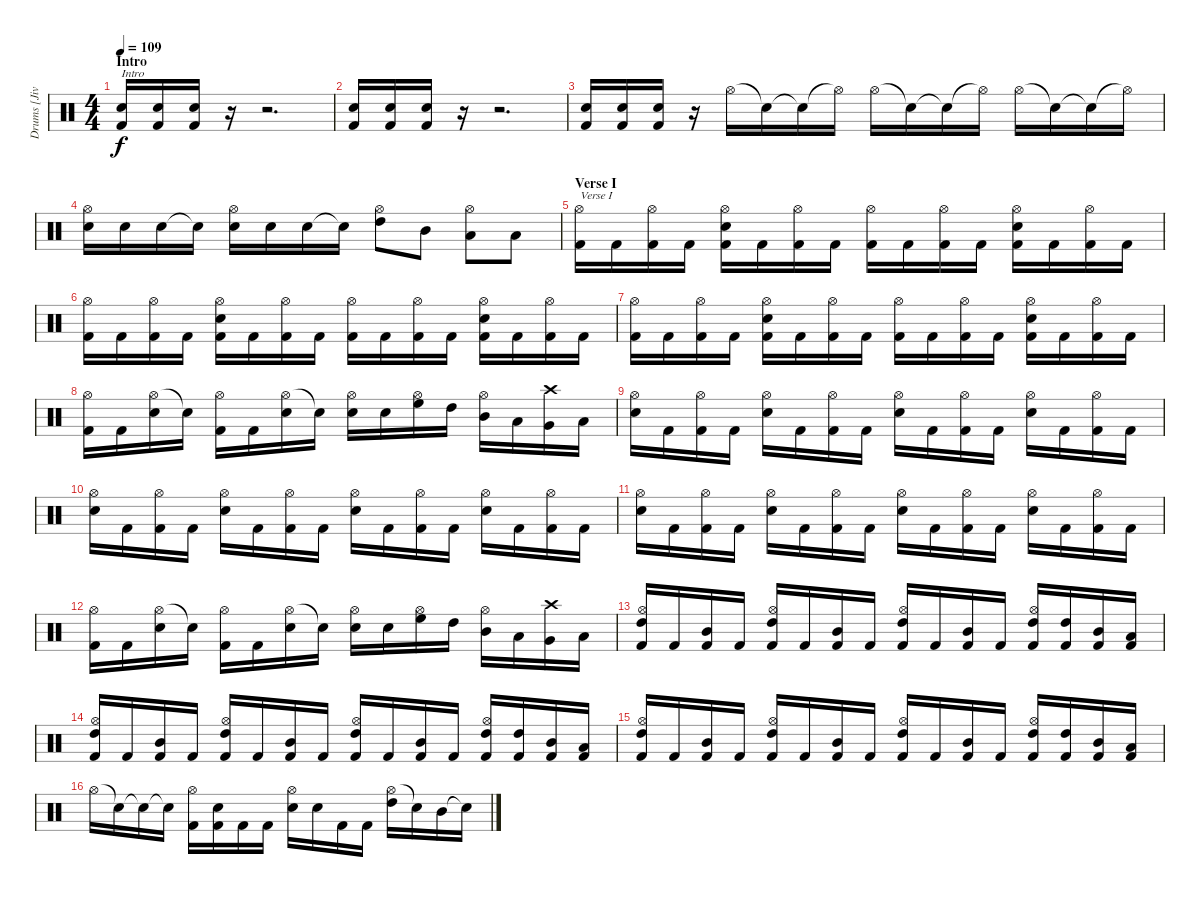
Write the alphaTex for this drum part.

\track ("Drums [Jivarp]" "Drums [Jiv") {instrument percussion}
\staff {score}
\articulation defaults
\ts (4 4)
\section ("" "Intro")
\tempo 109
\clef neutral
\ks c
("Electric Snare (hit)" "Kick (hit) 2").16{txt "Intro" dy f} ("Electric Snare (hit)" "Kick (hit) 2").16 ("Electric Snare (hit)" "Kick (hit) 2").16 r.16 r.2{d} |
("Electric Snare (hit)" "Kick (hit) 2").16 ("Electric Snare (hit)" "Kick (hit) 2").16 ("Electric Snare (hit)" "Kick (hit) 2").16 r.16 r.2{d} |
("Electric Snare (hit)" "Kick (hit) 2").16 ("Electric Snare (hit)" "Kick (hit) 2").16 ("Electric Snare (hit)" "Kick (hit) 2").16 r.16 "Hi-Hat (open)".16 "Snare (hit)"{t}.16 "Snare (hit)"{t}.16 "Hi-Hat (open)"{t}.16 "Hi-Hat (open)".16 "Snare (hit)"{t}.16 "Snare (hit)"{t}.16 "Hi-Hat (open)"{t}.16 "Hi-Hat (open)".16 "Snare (hit)"{t}.16 "Snare (hit)"{t}.16 "Hi-Hat (open)"{t}.16 |
("Hi-Hat (open)" "Electric Snare (hit)").16 "Electric Snare (hit)".16 "Electric Snare (hit)".16 "Electric Snare (hit)"{t}.16 ("Hi-Hat (open)" "Electric Snare (hit)").16 "Electric Snare (hit)".16 "Electric Snare (hit)".16 "Electric Snare (hit)"{t}.16 ("Hi-Hat (open)" "High Tom (hit)").8 "Mid Tom (hit)".8 ("Hi-Hat (open)" "Low Tom (hit)").8 "Low Tom (hit)".8 |
\section ("" "Verse I")
("Hi-Hat (open)" "Kick (hit) 2").16{txt "Verse I"} "Kick (hit) 2".16 ("Hi-Hat (open)" "Kick (hit) 2").16 "Kick (hit) 2".16 ("Hi-Hat (open)" "Electric Snare (hit)" "Kick (hit) 2").16 "Kick (hit) 2".16 ("Hi-Hat (open)" "Kick (hit) 2").16 "Kick (hit) 2".16 ("Hi-Hat (open)" "Kick (hit) 2").16 "Kick (hit) 2".16 ("Hi-Hat (open)" "Kick (hit) 2").16 "Kick (hit) 2".16 ("Hi-Hat (open)" "Electric Snare (hit)" "Kick (hit) 2").16 "Kick (hit) 2".16 ("Hi-Hat (open)" "Kick (hit) 2").16 "Kick (hit) 2".16 |
("Hi-Hat (open)" "Kick (hit) 2").16 "Kick (hit) 2".16 ("Hi-Hat (open)" "Kick (hit) 2").16 "Kick (hit) 2".16 ("Hi-Hat (open)" "Electric Snare (hit)" "Kick (hit) 2").16 "Kick (hit) 2".16 ("Hi-Hat (open)" "Kick (hit) 2").16 "Kick (hit) 2".16 ("Hi-Hat (open)" "Kick (hit) 2").16 "Kick (hit) 2".16 ("Hi-Hat (open)" "Kick (hit) 2").16 "Kick (hit) 2".16 ("Hi-Hat (open)" "Electric Snare (hit)" "Kick (hit) 2").16 "Kick (hit) 2".16 ("Hi-Hat (open)" "Kick (hit) 2").16 "Kick (hit) 2".16 |
("Hi-Hat (open)" "Kick (hit) 2").16 "Kick (hit) 2".16 ("Hi-Hat (open)" "Kick (hit) 2").16 "Kick (hit) 2".16 ("Hi-Hat (open)" "Electric Snare (hit)" "Kick (hit) 2").16 "Kick (hit) 2".16 ("Hi-Hat (open)" "Kick (hit) 2").16 "Kick (hit) 2".16 ("Hi-Hat (open)" "Kick (hit) 2").16 "Kick (hit) 2".16 ("Hi-Hat (open)" "Kick (hit) 2").16 "Kick (hit) 2".16 ("Hi-Hat (open)" "Electric Snare (hit)" "Kick (hit) 2").16 "Kick (hit) 2".16 ("Hi-Hat (open)" "Kick (hit) 2").16 "Kick (hit) 2".16 |
("Hi-Hat (open)" "Kick (hit) 2").16 "Kick (hit) 2".16 ("Hi-Hat (open)" "Electric Snare (hit)").16 "Electric Snare (hit)"{t}.16 ("Hi-Hat (open)" "Kick (hit) 2").16 "Kick (hit) 2".16 ("Hi-Hat (open)" "Electric Snare (hit)").16 "Electric Snare (hit)"{t}.16 ("Hi-Hat (open)" "Electric Snare (hit)").16 "Electric Snare (hit)".16 ("Hi-Hat (open)" "High Floor Tom (hit)").16 "High Tom (hit)".16 ("Hi-Hat (open)" "Mid Tom (hit)").16 "Low Tom (hit)".16 ("Crash high (hit)" "Very Low Tom (hit)").16 "Low Tom (hit)".16 |
("Hi-Hat (open)" "Electric Snare (hit)").16 "Kick (hit) 2".16 ("Hi-Hat (open)" "Kick (hit) 2").16 "Kick (hit) 2".16 ("Hi-Hat (open)" "Electric Snare (hit)").16 "Kick (hit) 2".16 ("Hi-Hat (open)" "Kick (hit) 2").16 "Kick (hit) 2".16 ("Hi-Hat (open)" "Electric Snare (hit)").16 "Kick (hit) 2".16 ("Hi-Hat (open)" "Kick (hit) 2").16 "Kick (hit) 2".16 ("Hi-Hat (open)" "Electric Snare (hit)").16 "Kick (hit) 2".16 ("Hi-Hat (open)" "Kick (hit) 2").16 "Kick (hit) 2".16 |
("Hi-Hat (open)" "Electric Snare (hit)").16 "Kick (hit) 2".16 ("Hi-Hat (open)" "Kick (hit) 2").16 "Kick (hit) 2".16 ("Hi-Hat (open)" "Electric Snare (hit)").16 "Kick (hit) 2".16 ("Hi-Hat (open)" "Kick (hit) 2").16 "Kick (hit) 2".16 ("Hi-Hat (open)" "Electric Snare (hit)").16 "Kick (hit) 2".16 ("Hi-Hat (open)" "Kick (hit) 2").16 "Kick (hit) 2".16 ("Hi-Hat (open)" "Electric Snare (hit)").16 "Kick (hit) 2".16 ("Hi-Hat (open)" "Kick (hit) 2").16 "Kick (hit) 2".16 |
("Hi-Hat (open)" "Electric Snare (hit)").16 "Kick (hit) 2".16 ("Hi-Hat (open)" "Kick (hit) 2").16 "Kick (hit) 2".16 ("Hi-Hat (open)" "Electric Snare (hit)").16 "Kick (hit) 2".16 ("Hi-Hat (open)" "Kick (hit) 2").16 "Kick (hit) 2".16 ("Hi-Hat (open)" "Electric Snare (hit)").16 "Kick (hit) 2".16 ("Hi-Hat (open)" "Kick (hit) 2").16 "Kick (hit) 2".16 ("Hi-Hat (open)" "Electric Snare (hit)").16 "Kick (hit) 2".16 ("Hi-Hat (open)" "Kick (hit) 2").16 "Kick (hit) 2".16 |
("Hi-Hat (open)" "Kick (hit) 2").16 "Kick (hit) 2".16 ("Hi-Hat (open)" "Electric Snare (hit)").16 "Electric Snare (hit)"{t}.16 ("Hi-Hat (open)" "Kick (hit) 2").16 "Kick (hit) 2".16 ("Hi-Hat (open)" "Electric Snare (hit)").16 "Electric Snare (hit)"{t}.16 ("Hi-Hat (open)" "Electric Snare (hit)").16 "Electric Snare (hit)".16 ("Hi-Hat (open)" "High Floor Tom (hit)").16 "High Tom (hit)".16 ("Hi-Hat (open)" "Mid Tom (hit)").16 "Low Tom (hit)".16 ("Crash high (hit)" "Very Low Tom (hit)").16 "Low Tom (hit)".16 |
("Hi-Hat (open)" "High Tom (hit)" "Kick (hit) 2").16 "Kick (hit) 2".16 ("Mid Tom (hit)" "Kick (hit) 2").16 "Kick (hit) 2".16 ("Hi-Hat (open)" "High Tom (hit)" "Kick (hit) 2").16 "Kick (hit) 2".16 ("Mid Tom (hit)" "Kick (hit) 2").16 "Kick (hit) 2".16 ("Hi-Hat (open)" "High Tom (hit)" "Kick (hit) 2").16 "Kick (hit) 2".16 ("Mid Tom (hit)" "Kick (hit) 2").16 "Kick (hit) 2".16 ("Hi-Hat (open)" "High Tom (hit)" "Kick (hit) 2").16 ("High Tom (hit)" "Kick (hit) 2").16 ("Mid Tom (hit)" "Kick (hit) 2").16 ("Low Tom (hit)" "Kick (hit) 2").16 |
("Hi-Hat (open)" "High Tom (hit)" "Kick (hit) 2").16 "Kick (hit) 2".16 ("Mid Tom (hit)" "Kick (hit) 2").16 "Kick (hit) 2".16 ("Hi-Hat (open)" "High Tom (hit)" "Kick (hit) 2").16 "Kick (hit) 2".16 ("Mid Tom (hit)" "Kick (hit) 2").16 "Kick (hit) 2".16 ("Hi-Hat (open)" "High Tom (hit)" "Kick (hit) 2").16 "Kick (hit) 2".16 ("Mid Tom (hit)" "Kick (hit) 2").16 "Kick (hit) 2".16 ("Hi-Hat (open)" "High Tom (hit)" "Kick (hit) 2").16 ("High Tom (hit)" "Kick (hit) 2").16 ("Mid Tom (hit)" "Kick (hit) 2").16 ("Low Tom (hit)" "Kick (hit) 2").16 |
("Hi-Hat (open)" "High Tom (hit)" "Kick (hit) 2").16 "Kick (hit) 2".16 ("Mid Tom (hit)" "Kick (hit) 2").16 "Kick (hit) 2".16 ("Hi-Hat (open)" "High Tom (hit)" "Kick (hit) 2").16 "Kick (hit) 2".16 ("Mid Tom (hit)" "Kick (hit) 2").16 "Kick (hit) 2".16 ("Hi-Hat (open)" "High Tom (hit)" "Kick (hit) 2").16 "Kick (hit) 2".16 ("Mid Tom (hit)" "Kick (hit) 2").16 "Kick (hit) 2".16 ("Hi-Hat (open)" "High Tom (hit)" "Kick (hit) 2").16 ("High Tom (hit)" "Kick (hit) 2").16 ("Mid Tom (hit)" "Kick (hit) 2").16 ("Low Tom (hit)" "Kick (hit) 2").16 |
"Hi-Hat (open)".16 "Snare (hit)"{t}.16 "Snare (hit)"{t}.16 "Snare (hit)"{t}.16 ("Hi-Hat (open)" "Kick (hit) 2").16 ("Electric Snare (hit)" "Kick (hit) 2").16 "Kick (hit) 2".16 "Kick (hit) 2".16 ("Hi-Hat (open)" "Electric Snare (hit)").16 "Electric Snare (hit)".16 "Kick (hit) 2".16 "Kick (hit) 2".16 ("Hi-Hat (open)" "High Tom (hit)").16 "Snare (hit)"{t}.16 "Mid Tom (hit)".16 "Snare (hit)"{t}.16
